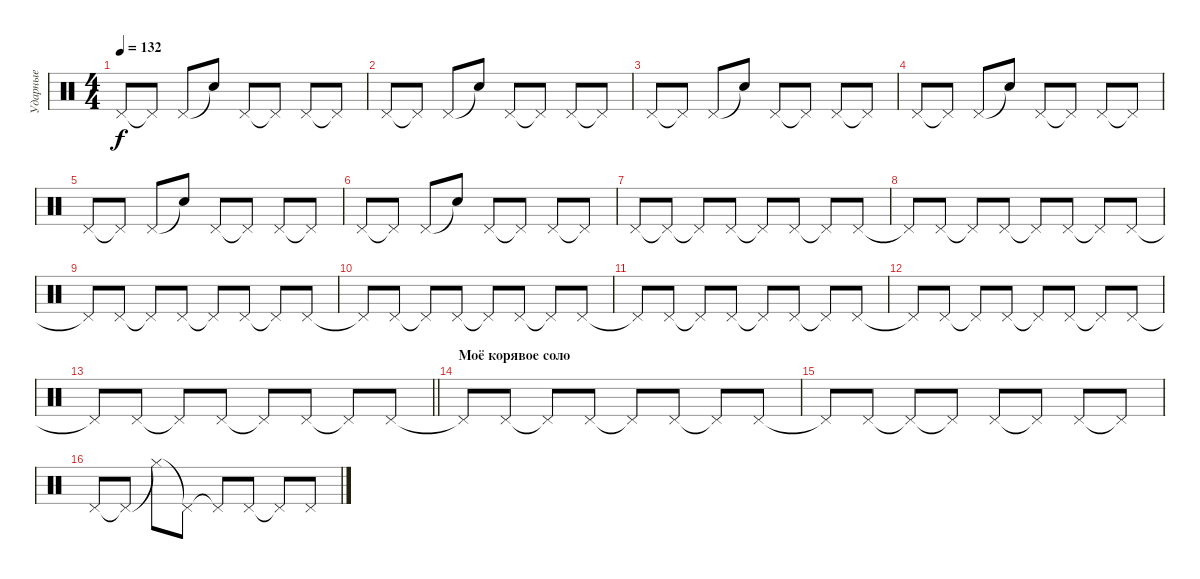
\track ("Ударные" "Ударные") {instrument percussion}
\staff {score}
\articulation defaults
\ts (4 4)
\tempo 132
\clef neutral
\ks c "Pedal Hi-Hat (hit)".8{dy f} "Pedal Hi-Hat (hit)"{t}.8 "Pedal Hi-Hat (hit)".8 "Snare (hit)"{t}.8 "Pedal Hi-Hat (hit)".8 "Pedal Hi-Hat (hit)"{t}.8 "Pedal Hi-Hat (hit)".8 "Pedal Hi-Hat (hit)"{t}.8
|
"Pedal Hi-Hat (hit)".8 "Pedal Hi-Hat (hit)"{t}.8 "Pedal Hi-Hat (hit)".8 "Snare (hit)"{t}.8 "Pedal Hi-Hat (hit)".8 "Pedal Hi-Hat (hit)"{t}.8 "Pedal Hi-Hat (hit)".8 "Pedal Hi-Hat (hit)"{t}.8 |
"Pedal Hi-Hat (hit)".8 "Pedal Hi-Hat (hit)"{t}.8 "Pedal Hi-Hat (hit)".8 "Snare (hit)"{t}.8 "Pedal Hi-Hat (hit)".8 "Pedal Hi-Hat (hit)"{t}.8 "Pedal Hi-Hat (hit)".8 "Pedal Hi-Hat (hit)"{t}.8 |
"Pedal Hi-Hat (hit)".8 "Pedal Hi-Hat (hit)"{t}.8 "Pedal Hi-Hat (hit)".8 "Snare (hit)"{t}.8 "Pedal Hi-Hat (hit)".8 "Pedal Hi-Hat (hit)"{t}.8 "Pedal Hi-Hat (hit)".8 "Pedal Hi-Hat (hit)"{t}.8 |
"Pedal Hi-Hat (hit)".8 "Pedal Hi-Hat (hit)"{t}.8 "Pedal Hi-Hat (hit)".8 "Snare (hit)"{t}.8 "Pedal Hi-Hat (hit)".8 "Pedal Hi-Hat (hit)"{t}.8 "Pedal Hi-Hat (hit)".8 "Pedal Hi-Hat (hit)"{t}.8 |
"Pedal Hi-Hat (hit)".8 "Pedal Hi-Hat (hit)"{t}.8 "Pedal Hi-Hat (hit)".8 "Snare (hit)"{t}.8 "Pedal Hi-Hat (hit)".8 "Pedal Hi-Hat (hit)"{t}.8 "Pedal Hi-Hat (hit)".8 "Pedal Hi-Hat (hit)"{t}.8 |
"Pedal Hi-Hat (hit)".8 "Pedal Hi-Hat (hit)"{t}.8 "Pedal Hi-Hat (hit)"{t}.8 "Pedal Hi-Hat (hit)".8 "Pedal Hi-Hat (hit)"{t}.8 "Pedal Hi-Hat (hit)".8 "Pedal Hi-Hat (hit)"{t}.8 "Pedal Hi-Hat (hit)".8 |
"Pedal Hi-Hat (hit)"{t}.8 "Pedal Hi-Hat (hit)".8 "Pedal Hi-Hat (hit)"{t}.8 "Pedal Hi-Hat (hit)".8 "Pedal Hi-Hat (hit)"{t}.8 "Pedal Hi-Hat (hit)".8 "Pedal Hi-Hat (hit)"{t}.8 "Pedal Hi-Hat (hit)".8 |
"Pedal Hi-Hat (hit)"{t}.8 "Pedal Hi-Hat (hit)".8 "Pedal Hi-Hat (hit)"{t}.8 "Pedal Hi-Hat (hit)".8 "Pedal Hi-Hat (hit)"{t}.8 "Pedal Hi-Hat (hit)".8 "Pedal Hi-Hat (hit)"{t}.8 "Pedal Hi-Hat (hit)".8 |
"Pedal Hi-Hat (hit)"{t}.8 "Pedal Hi-Hat (hit)".8 "Pedal Hi-Hat (hit)"{t}.8 "Pedal Hi-Hat (hit)".8 "Pedal Hi-Hat (hit)"{t}.8 "Pedal Hi-Hat (hit)".8 "Pedal Hi-Hat (hit)"{t}.8 "Pedal Hi-Hat (hit)".8 |
"Pedal Hi-Hat (hit)"{t}.8 "Pedal Hi-Hat (hit)".8 "Pedal Hi-Hat (hit)"{t}.8 "Pedal Hi-Hat (hit)".8 "Pedal Hi-Hat (hit)"{t}.8 "Pedal Hi-Hat (hit)".8 "Pedal Hi-Hat (hit)"{t}.8 "Pedal Hi-Hat (hit)".8 |
"Pedal Hi-Hat (hit)"{t}.8 "Pedal Hi-Hat (hit)".8 "Pedal Hi-Hat (hit)"{t}.8 "Pedal Hi-Hat (hit)".8 "Pedal Hi-Hat (hit)"{t}.8 "Pedal Hi-Hat (hit)".8 "Pedal Hi-Hat (hit)"{t}.8 "Pedal Hi-Hat (hit)".8 |
\barLineRight lightlight "Pedal Hi-Hat (hit)"{t}.8 "Pedal Hi-Hat (hit)".8 "Pedal Hi-Hat (hit)"{t}.8 "Pedal Hi-Hat (hit)".8 "Pedal Hi-Hat (hit)"{t}.8 "Pedal Hi-Hat (hit)".8 "Pedal Hi-Hat (hit)"{t}.8 "Pedal Hi-Hat (hit)".8
|
\section ("" "Моё корявое соло")
"Pedal Hi-Hat (hit)"{t}.8 "Pedal Hi-Hat (hit)".8 "Pedal Hi-Hat (hit)"{t}.8 "Pedal Hi-Hat (hit)".8 "Pedal Hi-Hat (hit)"{t}.8 "Pedal Hi-Hat (hit)".8 "Pedal Hi-Hat (hit)"{t}.8 "Pedal Hi-Hat (hit)".8 |
"Pedal Hi-Hat (hit)"{t}.8 "Pedal Hi-Hat (hit)".8 "Pedal Hi-Hat (hit)"{t}.8 "Pedal Hi-Hat (hit)"{t}.8 "Pedal Hi-Hat (hit)".8 "Pedal Hi-Hat (hit)"{t}.8 "Pedal Hi-Hat (hit)".8 "Pedal Hi-Hat (hit)"{t}.8 |
"Pedal Hi-Hat (hit)".8 "Pedal Hi-Hat (hit)"{t}.8 "Hi-Hat (closed)"{t}.8 "Pedal Hi-Hat (hit)"{t}.8 "Pedal Hi-Hat (hit)"{t}.8 "Pedal Hi-Hat (hit)".8 "Pedal Hi-Hat (hit)"{t}.8 "Pedal Hi-Hat (hit)".8
